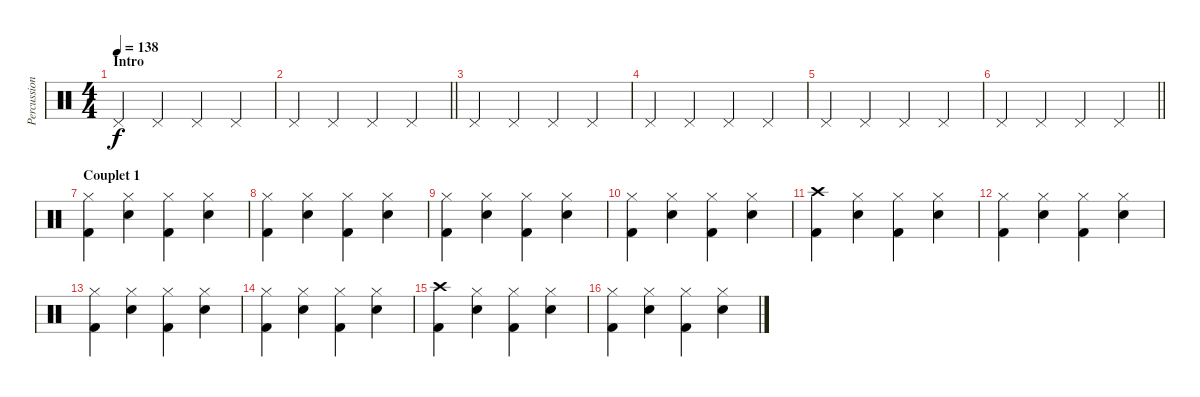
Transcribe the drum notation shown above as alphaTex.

\track ("Percussions Karim" "Percussion") {instrument percussion}
\staff {score}
\articulation defaults
\ts (4 4)
\section ("" "Intro ")
\tempo 138
\clef neutral
\ks c "Pedal Hi-Hat (hit)".4{dy f} "Pedal Hi-Hat (hit)".4 "Pedal Hi-Hat (hit)".4 "Pedal Hi-Hat (hit)".4
|
\barLineRight lightlight "Pedal Hi-Hat (hit)".4 "Pedal Hi-Hat (hit)".4 "Pedal Hi-Hat (hit)".4 "Pedal Hi-Hat (hit)".4
|
\section ("" "")
"Pedal Hi-Hat (hit)".4 "Pedal Hi-Hat (hit)".4 "Pedal Hi-Hat (hit)".4 "Pedal Hi-Hat (hit)".4 |
"Pedal Hi-Hat (hit)".4 "Pedal Hi-Hat (hit)".4 "Pedal Hi-Hat (hit)".4 "Pedal Hi-Hat (hit)".4 |
"Pedal Hi-Hat (hit)".4 "Pedal Hi-Hat (hit)".4 "Pedal Hi-Hat (hit)".4 "Pedal Hi-Hat (hit)".4 |
\barLineRight lightlight "Pedal Hi-Hat (hit)".4 "Pedal Hi-Hat (hit)".4 "Pedal Hi-Hat (hit)".4 "Pedal Hi-Hat (hit)".4
|
\section ("" "Couplet 1")
("Hi-Hat (closed)" "Kick (hit) 2").4 ("Hi-Hat (closed)" "Electric Snare (hit)").4 ("Hi-Hat (closed)" "Kick (hit) 2").4 ("Hi-Hat (closed)" "Electric Snare (hit)").4 |
("Hi-Hat (closed)" "Kick (hit) 2").4 ("Hi-Hat (closed)" "Electric Snare (hit)").4 ("Hi-Hat (closed)" "Kick (hit) 2").4 ("Hi-Hat (closed)" "Electric Snare (hit)").4 |
("Hi-Hat (closed)" "Kick (hit) 2").4 ("Hi-Hat (closed)" "Electric Snare (hit)").4 ("Hi-Hat (closed)" "Kick (hit) 2").4 ("Hi-Hat (closed)" "Electric Snare (hit)").4 |
("Hi-Hat (closed)" "Kick (hit) 2").4 ("Hi-Hat (closed)" "Electric Snare (hit)").4 ("Hi-Hat (closed)" "Kick (hit) 2").4 ("Hi-Hat (closed)" "Electric Snare (hit)").4 |
("Crash high (hit)" "Kick (hit) 2").4 ("Hi-Hat (closed)" "Electric Snare (hit)").4 ("Hi-Hat (closed)" "Kick (hit) 2").4 ("Hi-Hat (closed)" "Electric Snare (hit)").4 |
("Hi-Hat (closed)" "Kick (hit) 2").4 ("Hi-Hat (closed)" "Electric Snare (hit)").4 ("Hi-Hat (closed)" "Kick (hit) 2").4 ("Hi-Hat (closed)" "Electric Snare (hit)").4 |
("Hi-Hat (closed)" "Kick (hit) 2").4 ("Hi-Hat (closed)" "Electric Snare (hit)").4 ("Hi-Hat (closed)" "Kick (hit) 2").4 ("Hi-Hat (closed)" "Electric Snare (hit)").4 |
("Hi-Hat (closed)" "Kick (hit) 2").4 ("Hi-Hat (closed)" "Electric Snare (hit)").4 ("Hi-Hat (closed)" "Kick (hit) 2").4 ("Hi-Hat (closed)" "Electric Snare (hit)").4 |
("Crash high (hit)" "Kick (hit) 2").4 ("Hi-Hat (closed)" "Electric Snare (hit)").4 ("Hi-Hat (closed)" "Kick (hit) 2").4 ("Hi-Hat (closed)" "Electric Snare (hit)").4 |
("Hi-Hat (closed)" "Kick (hit) 2").4 ("Hi-Hat (closed)" "Electric Snare (hit)").4 ("Hi-Hat (closed)" "Kick (hit) 2").4 ("Hi-Hat (closed)" "Electric Snare (hit)").4
